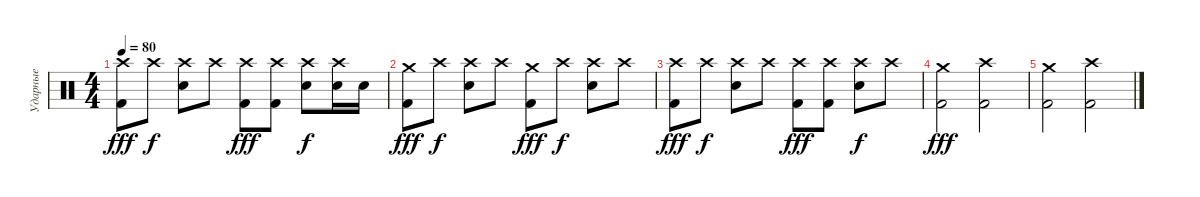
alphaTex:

\track ("Ударные" "Ударные") {instrument percussion}
\staff {score}
\articulation defaults
\ts (4 4)
\tempo 80
\clef neutral
\ks c
("Crash high (hit)" "Kick (hit) 2").8{dy fff} "Crash high (hit)".8{dy f} ("Crash high (hit)" "Electric Snare (hit)").8 "Crash high (hit)".8 ("Crash high (hit)" "Kick (hit) 2").8{dy fff} ("Crash high (hit)" "Kick (hit) 2").8 ("Crash high (hit)" "Electric Snare (hit)").8{dy f} ("Crash high (hit)" "Electric Snare (hit)").16 "Electric Snare (hit)".16 |
("Crash medium (hit)" "Kick (hit) 2").8{dy fff} "Crash high (hit)".8{dy f} ("Crash high (hit)" "Electric Snare (hit)").8 "Crash high (hit)".8 ("Crash medium (hit)" "Kick (hit) 2").8{dy fff} "Crash high (hit)".8{dy f} ("Crash high (hit)" "Electric Snare (hit)").8 "Crash high (hit)".8 |
("Crash high (hit)" "Kick (hit) 2").8{dy fff} "Crash high (hit)".8{dy f} ("Crash high (hit)" "Electric Snare (hit)").8 "Crash high (hit)".8 ("Crash high (hit)" "Kick (hit) 2").8{dy fff} ("Crash high (hit)" "Kick (hit) 2").8 ("Crash high (hit)" "Electric Snare (hit)").8{dy f} "Crash high (hit)".8 |
("Crash medium (hit)" "Kick (hit) 2").2{dy fff} ("Crash high (hit)" "Kick (hit) 2").2 |
("Crash medium (hit)" "Kick (hit) 2").2 ("Crash high (hit)" "Kick (hit) 2").2
